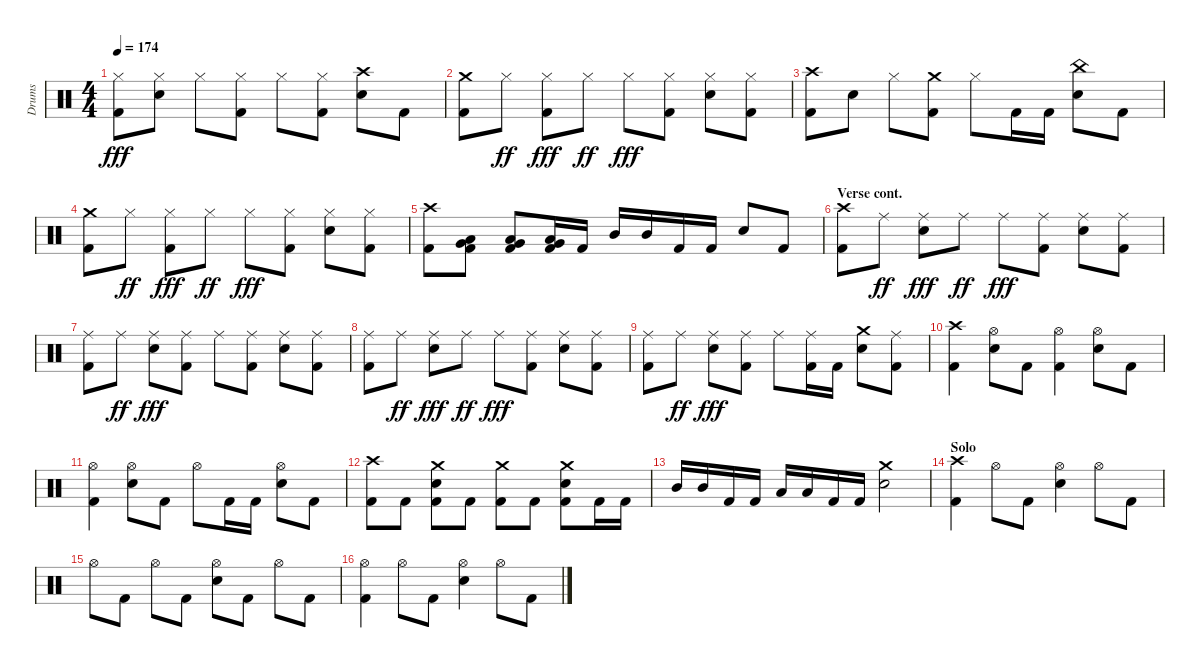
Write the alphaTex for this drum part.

\track ("Drums" "Drums") {instrument percussion}
\staff {score}
\articulation defaults
\ts (4 4)
\tempo 174
\clef neutral
\ks aminor
("Kick (hit) 2" "Hi-Hat (closed)").8{dy fff} ("Snare (hit) 2" "Hi-Hat (closed)").8 "Hi-Hat (closed)".8 ("Kick (hit) 2" "Hi-Hat (closed)").8 "Hi-Hat (closed)".8 ("Kick (hit) 2" "Hi-Hat (closed)").8 ("Snare (hit) 2" "Crash high (hit)").8 "Kick (hit) 2".8 |
("Kick (hit) 2" "Crash medium (hit)").8 "Hi-Hat (closed)".8{dy ff} ("Kick (hit) 2" "Hi-Hat (closed)").8{dy fff} "Hi-Hat (closed)".8{dy ff} "Hi-Hat (closed)".8{dy fff} ("Kick (hit) 2" "Hi-Hat (closed)").8 ("Snare (hit) 2" "Hi-Hat (closed)").8 ("Kick (hit) 2" "Hi-Hat (closed)").8 |
("Kick (hit) 2" "Crash high (hit)").8 "Snare (hit) 2".8 "Hi-Hat (closed)".8 ("Kick (hit) 2" "Crash medium (hit)").8 "Hi-Hat (closed)".8 "Kick (hit) 2".16 "Kick (hit) 2".16 ("Snare (hit) 2" "China (hit)").8 "Kick (hit) 2".8 |
("Kick (hit) 2" "Crash medium (hit)").8 "Hi-Hat (closed)".8{dy ff} ("Kick (hit) 2" "Hi-Hat (closed)").8{dy fff} "Hi-Hat (closed)".8{dy ff} "Hi-Hat (closed)".8{dy fff} ("Kick (hit) 2" "Hi-Hat (closed)").8 ("Snare (hit) 2" "Hi-Hat (closed)").8 ("Kick (hit) 2" "Hi-Hat (closed)").8 |
("Kick (hit) 2" "Crash high (hit)").8 ("Kick (hit) 2" "Low Floor Tom (hit)" "Very Low Tom (hit)").8 ("Kick (hit) 2" "Low Floor Tom (hit)" "Very Low Tom (hit)").8 ("Kick (hit) 2" "Low Floor Tom (hit)" "Very Low Tom (hit)").16 "Kick (hit) 2".16 "Mid Tom (hit)".16 "Mid Tom (hit)".16 "Kick (hit) 2".16 "Kick (hit) 2".16 "Snare (hit) 2".8 "Kick (hit) 2".8 |
\section ("" "Verse cont.")
("Kick (hit) 2" "Crash high (hit)").8 "Ride (middle)".8{dy ff} ("Snare (hit) 2" "Ride (middle)").8{dy fff} "Ride (middle)".8{dy ff} "Ride (middle)".8{dy fff} ("Kick (hit) 2" "Ride (middle)").8 ("Snare (hit) 2" "Ride (middle)").8 ("Kick (hit) 2" "Ride (middle)").8 |
("Kick (hit) 2" "Ride (middle)").8 "Ride (middle)".8{dy ff} ("Snare (hit) 2" "Ride (middle)").8{dy fff} ("Kick (hit) 2" "Ride (middle)").8 "Ride (middle)".8 ("Kick (hit) 2" "Ride (middle)").8 ("Snare (hit) 2" "Ride (middle)").8 ("Kick (hit) 2" "Ride (middle)").8 |
("Kick (hit) 2" "Ride (middle)").8 "Ride (middle)".8{dy ff} ("Snare (hit) 2" "Ride (middle)").8{dy fff} "Ride (middle)".8{dy ff} "Ride (middle)".8{dy fff} ("Kick (hit) 2" "Ride (middle)").8 ("Snare (hit) 2" "Ride (middle)").8 ("Kick (hit) 2" "Ride (middle)").8 |
("Kick (hit) 2" "Ride (middle)").8 "Ride (middle)".8{dy ff} ("Snare (hit) 2" "Ride (middle)").8{dy fff} ("Kick (hit) 2" "Ride (middle)").8 "Ride (middle)".8 ("Kick (hit) 2" "Ride (middle)").16 "Kick (hit) 2".16 ("Snare (hit) 2" "Crash medium (hit)").8 ("Kick (hit) 2" "Ride (middle)").8 |
("Kick (hit) 2" "Crash high (hit)").4 ("Snare (hit) 2" "Hi-Hat (open)").8 "Kick (hit) 2".8 ("Kick (hit) 2" "Hi-Hat (open)").4 ("Snare (hit) 2" "Hi-Hat (open)").8 "Kick (hit) 2".8 |
("Kick (hit) 2" "Hi-Hat (open)").4 ("Snare (hit) 2" "Hi-Hat (open)").8 "Kick (hit) 2".8 "Hi-Hat (open)".8 "Kick (hit) 2".16 "Kick (hit) 2".16 ("Snare (hit) 2" "Hi-Hat (open)").8 "Kick (hit) 2".8 |
("Kick (hit) 2" "Crash high (hit)").8 "Kick (hit) 2".8 ("Kick (hit) 2" "Snare (hit) 2" "Crash medium (hit)").8 "Kick (hit) 2".8 ("Kick (hit) 2" "Crash medium (hit)").8 "Kick (hit) 2".8 ("Kick (hit) 2" "Snare (hit) 2" "Crash medium (hit)").8 "Kick (hit) 2".16 "Kick (hit) 2".16 |
"Mid Tom (hit)".16 "Mid Tom (hit)".16 "Kick (hit) 2".16 "Kick (hit) 2".16 "Low Tom (hit)".16 "Low Tom (hit)".16 "Kick (hit) 2".16 "Kick (hit) 2".16 ("Snare (hit) 2" "Crash medium (hit)").2 |
\section ("" "Solo")
("Kick (hit) 2" "Crash high (hit)").4 "Hi-Hat (open)".8 "Kick (hit) 2".8 ("Snare (hit) 2" "Hi-Hat (open)").4 "Hi-Hat (open)".8 "Kick (hit) 2".8 |
"Hi-Hat (open)".8 "Kick (hit) 2".8 "Hi-Hat (open)".8 "Kick (hit) 2".8 ("Snare (hit) 2" "Hi-Hat (open)").8 "Kick (hit) 2".8 "Hi-Hat (open)".8 "Kick (hit) 2".8 |
("Kick (hit) 2" "Hi-Hat (open)").4 "Hi-Hat (open)".8 "Kick (hit) 2".8 ("Snare (hit) 2" "Hi-Hat (open)").4 "Hi-Hat (open)".8 "Kick (hit) 2".8
